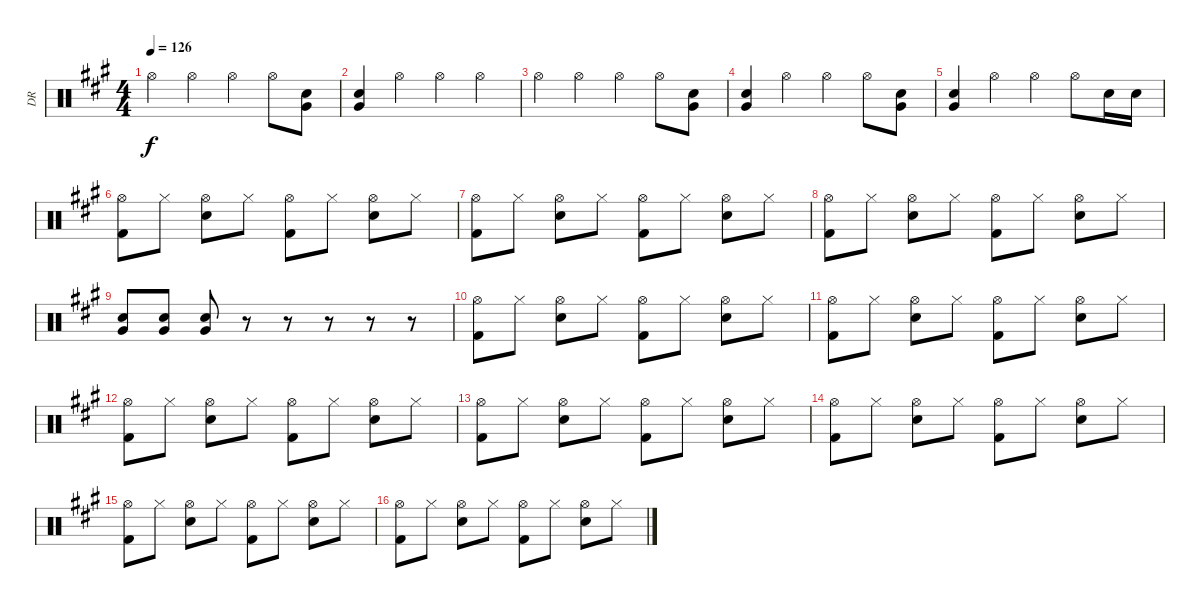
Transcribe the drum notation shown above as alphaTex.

\track ("DR" "DR") {instrument percussion}
\staff {score}
\articulation defaults
\ts (4 4)
\tempo 126
\clef neutral
\ks f#minor "Hi-Hat (open)".4{dy f} "Hi-Hat (open)".4 "Hi-Hat (open)".4 "Hi-Hat (open)".8
("Very Low Tom (hit)" "Electric Snare (hit)").8 |
("Very Low Tom (hit)" "Electric Snare (hit)").4 "Hi-Hat (open)".4 "Hi-Hat (open)".4 "Hi-Hat (open)".4 |
"Hi-Hat (open)".4 "Hi-Hat (open)".4 "Hi-Hat (open)".4 "Hi-Hat (open)".8 ("Very Low Tom (hit)" "Electric Snare (hit)").8 |
("Very Low Tom (hit)" "Electric Snare (hit)").4 "Hi-Hat (open)".4 "Hi-Hat (open)".4 "Hi-Hat (open)".8 ("Very Low Tom (hit)" "Electric Snare (hit)").8 |
("Very Low Tom (hit)" "Electric Snare (hit)").4 "Hi-Hat (open)".4 "Hi-Hat (open)".4 "Hi-Hat (open)".8 "Electric Snare (hit)".16 "Electric Snare (hit)".16 |
("Hi-Hat (open)" "Kick (hit) 2").8 "Hi-Hat (closed)".8 ("Hi-Hat (open)" "Electric Snare (hit)").8 "Hi-Hat (closed)".8 ("Hi-Hat (open)" "Kick (hit) 2").8 "Hi-Hat (closed)".8 ("Hi-Hat (open)" "Electric Snare (hit)").8 "Hi-Hat (closed)".8 |
("Hi-Hat (open)" "Kick (hit) 2").8 "Hi-Hat (closed)".8 ("Hi-Hat (open)" "Electric Snare (hit)").8 "Hi-Hat (closed)".8 ("Hi-Hat (open)" "Kick (hit) 2").8 "Hi-Hat (closed)".8 ("Hi-Hat (open)" "Electric Snare (hit)").8 "Hi-Hat (closed)".8 |
("Hi-Hat (open)" "Kick (hit) 2").8 "Hi-Hat (closed)".8 ("Hi-Hat (open)" "Electric Snare (hit)").8 "Hi-Hat (closed)".8 ("Hi-Hat (open)" "Kick (hit) 2").8 "Hi-Hat (closed)".8 ("Hi-Hat (open)" "Electric Snare (hit)").8 "Hi-Hat (closed)".8 |
("Very Low Tom (hit)" "Electric Snare (hit)").8 ("Very Low Tom (hit)" "Electric Snare (hit)").8 ("Very Low Tom (hit)" "Electric Snare (hit)").8 r.8 r.8 r.8 r.8 r.8 |
("Hi-Hat (open)" "Kick (hit) 2").8 "Hi-Hat (closed)".8 ("Hi-Hat (open)" "Electric Snare (hit)").8 "Hi-Hat (closed)".8 ("Hi-Hat (open)" "Kick (hit) 2").8 "Hi-Hat (closed)".8 ("Hi-Hat (open)" "Electric Snare (hit)").8 "Hi-Hat (closed)".8 |
("Hi-Hat (open)" "Kick (hit) 2").8 "Hi-Hat (closed)".8 ("Hi-Hat (open)" "Electric Snare (hit)").8 "Hi-Hat (closed)".8 ("Hi-Hat (open)" "Kick (hit) 2").8 "Hi-Hat (closed)".8 ("Hi-Hat (open)" "Electric Snare (hit)").8 "Hi-Hat (closed)".8 |
("Hi-Hat (open)" "Kick (hit) 2").8 "Hi-Hat (closed)".8 ("Hi-Hat (open)" "Electric Snare (hit)").8 "Hi-Hat (closed)".8 ("Hi-Hat (open)" "Kick (hit) 2").8 "Hi-Hat (closed)".8 ("Hi-Hat (open)" "Electric Snare (hit)").8 "Hi-Hat (closed)".8 |
("Hi-Hat (open)" "Kick (hit) 2").8 "Hi-Hat (closed)".8 ("Hi-Hat (open)" "Electric Snare (hit)").8 "Hi-Hat (closed)".8 ("Hi-Hat (open)" "Kick (hit) 2").8 "Hi-Hat (closed)".8 ("Hi-Hat (open)" "Electric Snare (hit)").8 "Hi-Hat (closed)".8 |
("Hi-Hat (open)" "Kick (hit) 2").8 "Hi-Hat (closed)".8 ("Hi-Hat (open)" "Electric Snare (hit)").8 "Hi-Hat (closed)".8 ("Hi-Hat (open)" "Kick (hit) 2").8 "Hi-Hat (closed)".8 ("Hi-Hat (open)" "Electric Snare (hit)").8 "Hi-Hat (closed)".8 |
("Hi-Hat (open)" "Kick (hit) 2").8 "Hi-Hat (closed)".8 ("Hi-Hat (open)" "Electric Snare (hit)").8 "Hi-Hat (closed)".8 ("Hi-Hat (open)" "Kick (hit) 2").8 "Hi-Hat (closed)".8 ("Hi-Hat (open)" "Electric Snare (hit)").8 "Hi-Hat (closed)".8 |
("Hi-Hat (open)" "Kick (hit) 2").8 "Hi-Hat (closed)".8 ("Hi-Hat (open)" "Electric Snare (hit)").8 "Hi-Hat (closed)".8 ("Hi-Hat (open)" "Kick (hit) 2").8 "Hi-Hat (closed)".8 ("Hi-Hat (open)" "Electric Snare (hit)").8 "Hi-Hat (closed)".8
